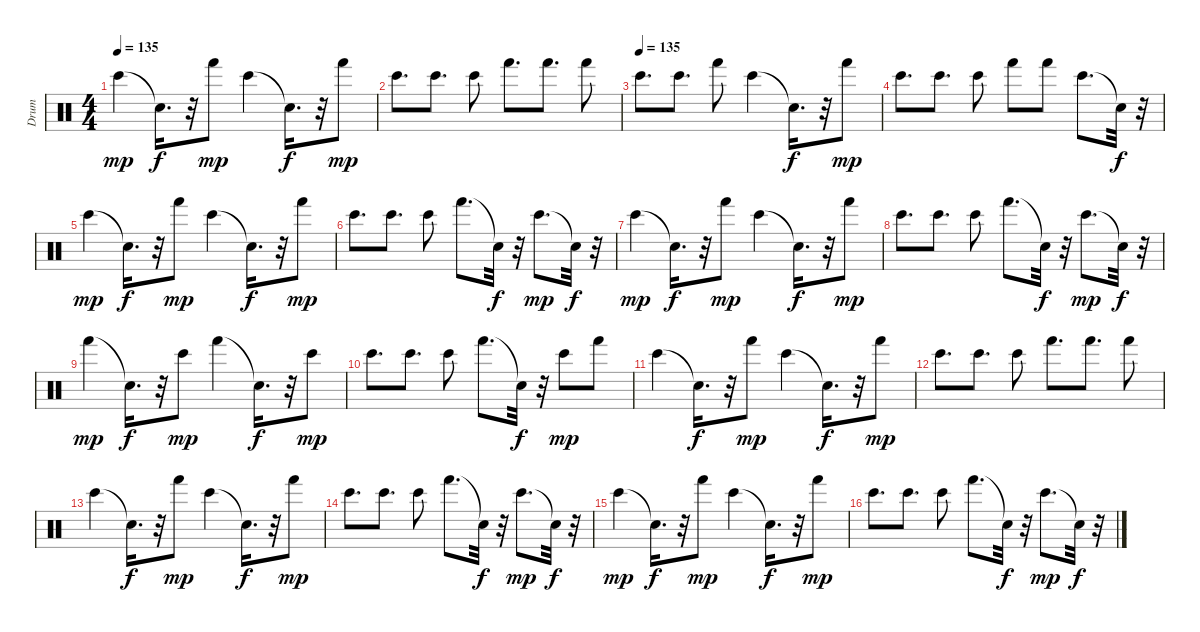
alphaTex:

\track ("Drum" "Drum") {instrument percussion}
\staff {score}
\articulation defaults
\ts (4 4)
\tempo 135
\clef neutral
\ks c "Bongo High (hit)".4{dy mp} "Snare (hit)"{t}.16{d dy f}
r.32 "Hand (hit)".8{dy mp} "Bongo High (hit)".4 "Snare (hit)"{t}.16{d dy f} r.32 "Hand (hit)".8{dy mp} |
"Bongo High (hit)".8{d} "Bongo High (hit)".8{d} "Bongo High (hit)".8 "Hand (hit)".8{d} "Hand (hit)".8{d} "Hand (hit)".8 |
\tempo (135)
"Bongo High (hit)".8{d} "Bongo High (hit)".8{d} "Hand (hit)".8 "Bongo High (hit)".4 "Snare (hit)"{t}.16{d dy f} r.32 "Hand (hit)".8{dy mp} |
"Bongo High (hit)".8{d} "Bongo High (hit)".8{d} "Bongo High (hit)".8 "Hand (hit)".8 "Hand (hit)".8 "Bongo High (hit)".8{d} "Snare (hit)"{t}.32{dy f} r.32 |
"Bongo High (hit)".4{dy mp} "Snare (hit)"{t}.16{d dy f} r.32 "Hand (hit)".8{dy mp} "Bongo High (hit)".4 "Snare (hit)"{t}.16{d dy f} r.32 "Hand (hit)".8{dy mp} |
"Bongo High (hit)".8{d} "Bongo High (hit)".8{d} "Bongo High (hit)".8 "Hand (hit)".8{d} "Snare (hit)"{t}.32{dy f} r.32 "Bongo High (hit)".8{d dy mp} "Snare (hit)"{t}.32{dy f} r.32 |
"Bongo High (hit)".4{dy mp} "Snare (hit)"{t}.16{d dy f} r.32 "Hand (hit)".8{dy mp} "Bongo High (hit)".4 "Snare (hit)"{t}.16{d dy f} r.32 "Hand (hit)".8{dy mp} |
"Bongo High (hit)".8{d} "Bongo High (hit)".8{d} "Bongo High (hit)".8 "Hand (hit)".8{d} "Snare (hit)"{t}.32{dy f} r.32 "Bongo High (hit)".8{d dy mp} "Snare (hit)"{t}.32{dy f} r.32 |
"Hand (hit)".4{dy mp} "Snare (hit)"{t}.16{d dy f} r.32 "Bongo High (hit)".8{dy mp} "Hand (hit)".4 "Snare (hit)"{t}.16{d dy f} r.32 "Bongo High (hit)".8{dy mp} |
"Bongo High (hit)".8{d} "Bongo High (hit)".8{d} "Bongo High (hit)".8 "Hand (hit)".8{d} "Snare (hit)"{t}.32{dy f} r.32 "Bongo High (hit)".8{dy mp} "Hand (hit)".8 |
"Bongo High (hit)".4 "Snare (hit)"{t}.16{d dy f} r.32 "Hand (hit)".8{dy mp} "Bongo High (hit)".4 "Snare (hit)"{t}.16{d dy f} r.32 "Hand (hit)".8{dy mp} |
"Bongo High (hit)".8{d} "Bongo High (hit)".8{d} "Bongo High (hit)".8 "Hand (hit)".8{d} "Hand (hit)".8{d} "Hand (hit)".8 |
"Bongo High (hit)".4 "Snare (hit)"{t}.16{d dy f} r.32 "Hand (hit)".8{dy mp} "Bongo High (hit)".4 "Snare (hit)"{t}.16{d dy f} r.32 "Hand (hit)".8{dy mp} |
"Bongo High (hit)".8{d} "Bongo High (hit)".8{d} "Bongo High (hit)".8 "Hand (hit)".8{d} "Snare (hit)"{t}.32{dy f} r.32 "Bongo High (hit)".8{d dy mp} "Snare (hit)"{t}.32{dy f} r.32 |
"Bongo High (hit)".4{dy mp} "Snare (hit)"{t}.16{d dy f} r.32 "Hand (hit)".8{dy mp} "Bongo High (hit)".4 "Snare (hit)"{t}.16{d dy f} r.32 "Hand (hit)".8{dy mp} |
"Bongo High (hit)".8{d} "Bongo High (hit)".8{d} "Bongo High (hit)".8 "Hand (hit)".8{d} "Snare (hit)"{t}.32{dy f} r.32 "Bongo High (hit)".8{d dy mp} "Snare (hit)"{t}.32{dy f} r.32
